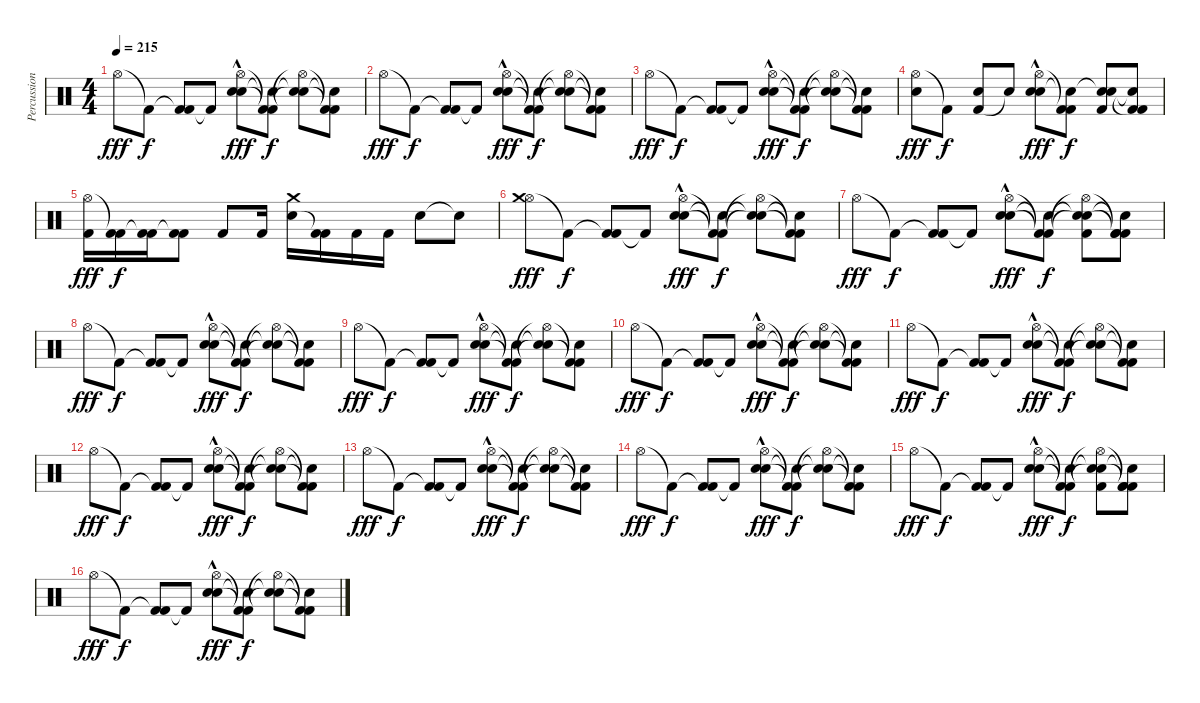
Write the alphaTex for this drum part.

\track ("Percussion" "Percussion") {instrument percussion}
\staff {score}
\articulation defaults
\ts (4 4)
\tempo 215
\clef neutral
\ks c "Hi-Hat (open)".8{dy fff} "Kick (hit) 2"{t}.8{dy f}
("Kick (hit) 2"{t} "Kick (hit) 2").8 "Kick (hit) 2"{t}.8 ("Snare (hit) 2"{hac} "Hi-Hat (open)"{hac} "Electric Snare (hit)").8{dy fff} ("Kick (hit) 2"{t} "Kick (hit) 2"{t} "Snare (hit)"{t}).8{dy f} ("Snare (hit)"{t} "Hi-Hat (open)"{t} "Snare (hit)"{t}).8 ("Kick (hit) 2"{t} "Kick (hit) 2"{t} "Snare (hit)"{t}).8 |
"Hi-Hat (open)".8{dy fff} "Kick (hit) 2"{t}.8{dy f} ("Kick (hit) 2"{t} "Kick (hit) 2").8 "Kick (hit) 2"{t}.8 ("Snare (hit) 2"{hac} "Hi-Hat (open)"{hac} "Electric Snare (hit)").8{dy fff} ("Kick (hit) 2"{t} "Kick (hit) 2"{t} "Snare (hit)"{t}).8{dy f} ("Snare (hit)"{t} "Hi-Hat (open)"{t} "Snare (hit)"{t}).8 ("Kick (hit) 2"{t} "Kick (hit) 2"{t} "Snare (hit)"{t}).8 |
"Hi-Hat (open)".8{dy fff} "Kick (hit) 2"{t}.8{dy f} ("Kick (hit) 2"{t} "Kick (hit) 2").8 "Kick (hit) 2"{t}.8 ("Snare (hit) 2"{hac} "Hi-Hat (open)"{hac} "Electric Snare (hit)").8{dy fff} ("Kick (hit) 2"{t} "Kick (hit) 2"{t} "Snare (hit)"{t}).8{dy f} ("Snare (hit)"{t} "Hi-Hat (open)"{t} "Snare (hit)"{t}).8 ("Kick (hit) 2"{t} "Kick (hit) 2"{t} "Snare (hit)"{t}).8 |
("Hi-Hat (open)" "Snare (hit) 2").8{dy fff} "Kick (hit) 2"{t}.8{dy f} ("Kick (hit) 2" "Electric Snare (hit)").8 "Snare (hit)"{t}.8 ("Snare (hit) 2"{hac} "Hi-Hat (open)"{hac} "Electric Snare (hit)").8{dy fff} ("Kick (hit) 2" "Kick (hit) 2"{t} "Snare (hit)"{t}).8{dy f} ("Kick (hit) 2" "Electric Snare (hit)" "Snare (hit)"{t}).8 ("Kick (hit) 2" "Kick (hit) 2"{t} "Snare (hit)"{t}).8 |
("Hi-Hat (open)" "Kick (hit) 2").16{dy fff} ("Kick (hit) 2"{t} "Kick (hit) 2").16{dy f} ("Kick (hit) 2"{t} "Kick (hit) 2").16 ("Kick (hit) 2"{t} "Kick (hit) 2").8 "Kick (hit) 2".8 "Kick (hit) 2".16 ("Snare (hit) 2" "Crash medium (hit)").16 ("Kick (hit) 2"{t} "Kick (hit) 2").16 "Kick (hit) 2".16 "Kick (hit) 2".16 "Electric Snare (hit)".8 "Snare (hit)"{t}.8 |
("Hi-Hat (open)" "Crash medium (hit)").8{dy fff} "Kick (hit) 2"{t}.8{dy f} ("Kick (hit) 2"{t} "Kick (hit) 2").8 "Kick (hit) 2"{t}.8 ("Snare (hit) 2"{hac} "Hi-Hat (open)"{hac} "Electric Snare (hit)").8{dy fff} ("Kick (hit) 2"{t} "Kick (hit) 2"{t} "Snare (hit)"{t}).8{dy f} ("Snare (hit)"{t} "Hi-Hat (open)"{t} "Snare (hit)"{t}).8 ("Kick (hit) 2"{t} "Kick (hit) 2"{t} "Snare (hit)"{t}).8 |
"Hi-Hat (open)".8{dy fff} "Kick (hit) 2"{t}.8{dy f} ("Kick (hit) 2"{t} "Kick (hit) 2").8 "Kick (hit) 2"{t}.8 ("Snare (hit) 2"{hac} "Hi-Hat (open)"{hac} "Electric Snare (hit)").8{dy fff} ("Kick (hit) 2"{t} "Kick (hit) 2"{t} "Snare (hit)"{t}).8{dy f} ("Snare (hit)"{t} "Hi-Hat (open)"{t} "Snare (hit)"{t} "Kick (hit) 2").8 ("Kick (hit) 2"{t} "Kick (hit) 2"{t} "Snare (hit)"{t} "Kick (hit) 2").8 |
"Hi-Hat (open)".8{dy fff} "Kick (hit) 2"{t}.8{dy f} ("Kick (hit) 2"{t} "Kick (hit) 2").8 "Kick (hit) 2"{t}.8 ("Snare (hit) 2"{hac} "Hi-Hat (open)"{hac} "Electric Snare (hit)").8{dy fff} ("Kick (hit) 2"{t} "Kick (hit) 2"{t} "Snare (hit)"{t}).8{dy f} ("Snare (hit)"{t} "Hi-Hat (open)"{t} "Snare (hit)"{t}).8 ("Kick (hit) 2"{t} "Kick (hit) 2"{t} "Snare (hit)"{t}).8 |
"Hi-Hat (open)".8{dy fff} "Kick (hit) 2"{t}.8{dy f} ("Kick (hit) 2"{t} "Kick (hit) 2").8 "Kick (hit) 2"{t}.8 ("Snare (hit) 2"{hac} "Hi-Hat (open)"{hac} "Electric Snare (hit)").8{dy fff} ("Kick (hit) 2"{t} "Kick (hit) 2"{t} "Snare (hit)"{t}).8{dy f} ("Snare (hit)"{t} "Hi-Hat (open)"{t} "Snare (hit)"{t}).8 ("Kick (hit) 2"{t} "Kick (hit) 2"{t} "Electric Snare (hit)").8 |
"Hi-Hat (open)".8{dy fff} "Kick (hit) 2"{t}.8{dy f} ("Kick (hit) 2"{t} "Kick (hit) 2").8 "Kick (hit) 2"{t}.8 ("Snare (hit) 2"{hac} "Hi-Hat (open)"{hac} "Electric Snare (hit)").8{dy fff} ("Kick (hit) 2"{t} "Kick (hit) 2"{t} "Snare (hit)"{t}).8{dy f} ("Snare (hit)"{t} "Hi-Hat (open)"{t} "Snare (hit)"{t}).8 ("Kick (hit) 2"{t} "Kick (hit) 2"{t} "Snare (hit)"{t}).8 |
"Hi-Hat (open)".8{dy fff} "Kick (hit) 2"{t}.8{dy f} ("Kick (hit) 2"{t} "Kick (hit) 2").8 "Kick (hit) 2"{t}.8 ("Snare (hit) 2"{hac} "Hi-Hat (open)"{hac} "Electric Snare (hit)").8{dy fff} ("Kick (hit) 2"{t} "Kick (hit) 2"{t} "Snare (hit)"{t}).8{dy f} ("Snare (hit)"{t} "Hi-Hat (open)"{t} "Snare (hit)"{t}).8 ("Kick (hit) 2"{t} "Kick (hit) 2"{t} "Snare (hit)"{t}).8 |
"Hi-Hat (open)".8{dy fff} "Kick (hit) 2"{t}.8{dy f} ("Kick (hit) 2"{t} "Kick (hit) 2").8 "Kick (hit) 2"{t}.8 ("Snare (hit) 2"{hac} "Hi-Hat (open)"{hac} "Electric Snare (hit)").8{dy fff} ("Kick (hit) 2"{t} "Kick (hit) 2"{t} "Snare (hit)"{t}).8{dy f} ("Snare (hit)"{t} "Hi-Hat (open)"{t} "Snare (hit)"{t}).8 ("Kick (hit) 2"{t} "Kick (hit) 2"{t} "Snare (hit)"{t}).8 |
"Hi-Hat (open)".8{dy fff} "Kick (hit) 2"{t}.8{dy f} ("Kick (hit) 2"{t} "Kick (hit) 2").8 "Kick (hit) 2"{t}.8 ("Snare (hit) 2"{hac} "Hi-Hat (open)"{hac} "Electric Snare (hit)").8{dy fff} ("Kick (hit) 2"{t} "Kick (hit) 2"{t} "Snare (hit)"{t}).8{dy f} ("Snare (hit)"{t} "Hi-Hat (open)"{t} "Snare (hit)"{t}).8 ("Kick (hit) 2"{t} "Kick (hit) 2"{t} "Snare (hit)"{t}).8 |
"Hi-Hat (open)".8{dy fff} "Kick (hit) 2"{t}.8{dy f} ("Kick (hit) 2"{t} "Kick (hit) 2").8 "Kick (hit) 2"{t}.8 ("Snare (hit) 2"{hac} "Hi-Hat (open)"{hac} "Electric Snare (hit)").8{dy fff} ("Kick (hit) 2"{t} "Kick (hit) 2"{t} "Snare (hit)"{t}).8{dy f} ("Snare (hit)"{t} "Hi-Hat (open)"{t} "Snare (hit)"{t}).8 ("Kick (hit) 2"{t} "Kick (hit) 2"{t} "Snare (hit)"{t}).8 |
"Hi-Hat (open)".8{dy fff} "Kick (hit) 2"{t}.8{dy f} ("Kick (hit) 2"{t} "Kick (hit) 2").8 "Kick (hit) 2"{t}.8 ("Snare (hit) 2"{hac} "Hi-Hat (open)"{hac} "Electric Snare (hit)").8{dy fff} ("Kick (hit) 2"{t} "Kick (hit) 2"{t} "Snare (hit)"{t}).8{dy f} ("Snare (hit)"{t} "Hi-Hat (open)"{t} "Snare (hit)"{t} "Kick (hit) 2").8 ("Kick (hit) 2"{t} "Kick (hit) 2"{t} "Snare (hit)"{t} "Kick (hit) 2").8 |
"Hi-Hat (open)".8{dy fff} "Kick (hit) 2"{t}.8{dy f} ("Kick (hit) 2"{t} "Kick (hit) 2").8 "Kick (hit) 2"{t}.8 ("Snare (hit) 2"{hac} "Hi-Hat (open)"{hac} "Electric Snare (hit)").8{dy fff} ("Kick (hit) 2"{t} "Kick (hit) 2"{t} "Snare (hit)"{t}).8{dy f} ("Snare (hit)"{t} "Hi-Hat (open)"{t} "Snare (hit)"{t}).8 ("Kick (hit) 2"{t} "Kick (hit) 2"{t} "Snare (hit)"{t}).8
